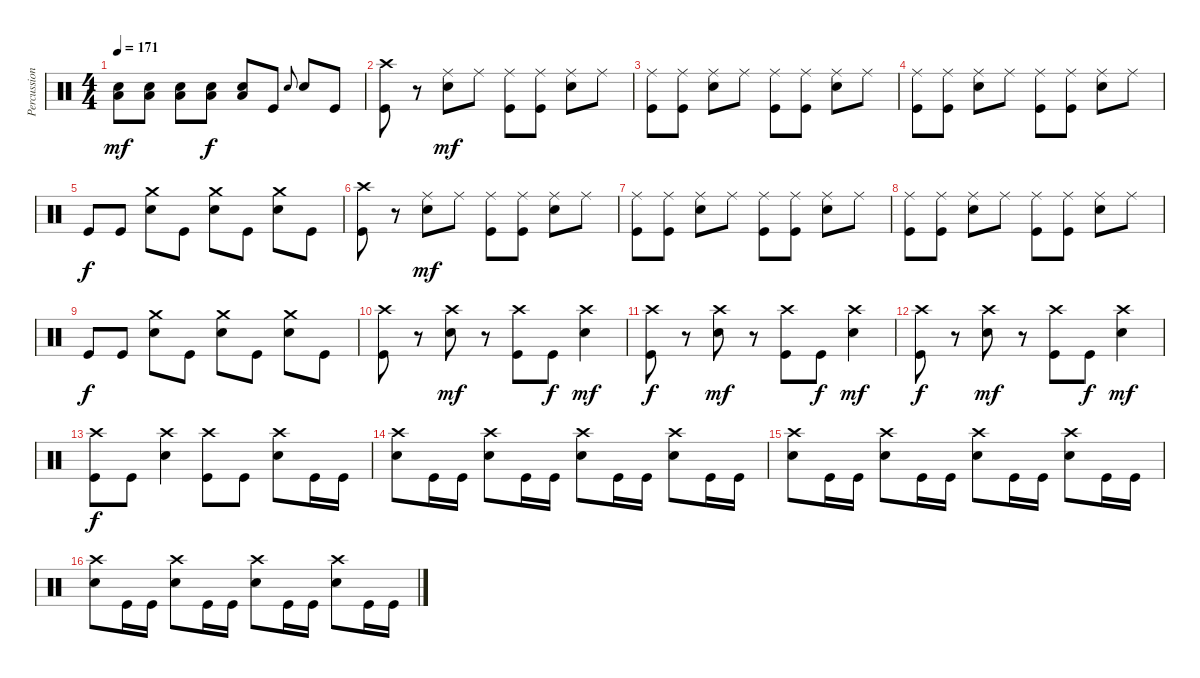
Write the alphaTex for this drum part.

\track ("Percussion" "Percussion") {instrument percussion}
\staff {score}
\articulation defaults
\ts (4 4)
\tempo 171
\clef neutral
\ks c
("Low Floor Tom (hit)" "Electric Snare (hit)").8{dy mf} ("Low Floor Tom (hit)" "Electric Snare (hit)").8 ("Low Floor Tom (hit)" "Electric Snare (hit)").8 ("Low Floor Tom (hit)" "Electric Snare (hit)").8{dy f} ("Low Floor Tom (hit)" "Electric Snare (hit)").8 "Kick (hit)".8 "Electric Snare (hit)".8{gr onbeat} "Electric Snare (hit)".8 "Kick (hit)".8 |
("Crash high (hit)" "Kick (hit)").8 r.8 ("Ride (middle)" "Electric Snare (hit)").8{dy mf} "Ride (middle)".8 ("Ride (middle)" "Kick (hit)").8 ("Ride (middle)" "Kick (hit)").8 ("Ride (middle)" "Electric Snare (hit)").8 "Ride (middle)".8 |
("Ride (middle)" "Kick (hit)").8 ("Ride (middle)" "Kick (hit)").8 ("Ride (middle)" "Electric Snare (hit)").8 "Ride (middle)".8 ("Ride (middle)" "Kick (hit)").8 ("Ride (middle)" "Kick (hit)").8 ("Ride (middle)" "Electric Snare (hit)").8 "Ride (middle)".8 |
("Ride (middle)" "Kick (hit)").8 ("Ride (middle)" "Kick (hit)").8 ("Ride (middle)" "Electric Snare (hit)").8 "Ride (middle)".8 ("Ride (middle)" "Kick (hit)").8 ("Ride (middle)" "Kick (hit)").8 ("Ride (middle)" "Electric Snare (hit)").8 "Ride (middle)".8 |
"Kick (hit)".8{dy f} "Kick (hit)".8 ("Crash medium (hit)" "Electric Snare (hit)").8 "Kick (hit)".8 ("Crash medium (hit)" "Electric Snare (hit)").8 "Kick (hit)".8 ("Crash medium (hit)" "Electric Snare (hit)").8 "Kick (hit)".8 |
("Crash high (hit)" "Kick (hit)").8 r.8 ("Ride (middle)" "Electric Snare (hit)").8{dy mf} "Ride (middle)".8 ("Ride (middle)" "Kick (hit)").8 ("Ride (middle)" "Kick (hit)").8 ("Ride (middle)" "Electric Snare (hit)").8 "Ride (middle)".8 |
("Ride (middle)" "Kick (hit)").8 ("Ride (middle)" "Kick (hit)").8 ("Ride (middle)" "Electric Snare (hit)").8 "Ride (middle)".8 ("Ride (middle)" "Kick (hit)").8 ("Ride (middle)" "Kick (hit)").8 ("Ride (middle)" "Electric Snare (hit)").8 "Ride (middle)".8 |
("Ride (middle)" "Kick (hit)").8 ("Ride (middle)" "Kick (hit)").8 ("Ride (middle)" "Electric Snare (hit)").8 "Ride (middle)".8 ("Ride (middle)" "Kick (hit)").8 ("Ride (middle)" "Kick (hit)").8 ("Ride (middle)" "Electric Snare (hit)").8 "Ride (middle)".8 |
"Kick (hit)".8{dy f} "Kick (hit)".8 ("Crash medium (hit)" "Electric Snare (hit)").8 "Kick (hit)".8 ("Crash medium (hit)" "Electric Snare (hit)").8 "Kick (hit)".8 ("Crash medium (hit)" "Electric Snare (hit)").8 "Kick (hit)".8 |
("Crash high (hit)" "Kick (hit)").8 r.8 ("Crash high (hit)" "Electric Snare (hit)").8{dy mf} r.8 ("Crash high (hit)" "Kick (hit)").8 "Kick (hit)".8{dy f} ("Crash high (hit)" "Electric Snare (hit)").4{dy mf} |
("Crash high (hit)" "Kick (hit)").8{dy f} r.8 ("Crash high (hit)" "Electric Snare (hit)").8{dy mf} r.8 ("Crash high (hit)" "Kick (hit)").8 "Kick (hit)".8{dy f} ("Crash high (hit)" "Electric Snare (hit)").4{dy mf} |
("Crash high (hit)" "Kick (hit)").8{dy f} r.8 ("Crash high (hit)" "Electric Snare (hit)").8{dy mf} r.8 ("Crash high (hit)" "Kick (hit)").8 "Kick (hit)".8{dy f} ("Crash high (hit)" "Electric Snare (hit)").4{dy mf} |
("Crash high (hit)" "Kick (hit)").8{dy f} "Kick (hit)".8 ("Crash high (hit)" "Electric Snare (hit)").4 ("Crash high (hit)" "Kick (hit)").8 "Kick (hit)".8 ("Crash high (hit)" "Electric Snare (hit)").8 "Kick (hit)".16 "Kick (hit)".16 |
("Crash high (hit)" "Electric Snare (hit)").8 "Kick (hit)".16 "Kick (hit)".16 ("Crash high (hit)" "Electric Snare (hit)").8 "Kick (hit)".16 "Kick (hit)".16 ("Crash high (hit)" "Electric Snare (hit)").8 "Kick (hit)".16 "Kick (hit)".16 ("Crash high (hit)" "Electric Snare (hit)").8 "Kick (hit)".16 "Kick (hit)".16 |
("Crash high (hit)" "Electric Snare (hit)").8 "Kick (hit)".16 "Kick (hit)".16 ("Crash high (hit)" "Electric Snare (hit)").8 "Kick (hit)".16 "Kick (hit)".16 ("Crash high (hit)" "Electric Snare (hit)").8 "Kick (hit)".16 "Kick (hit)".16 ("Crash high (hit)" "Electric Snare (hit)").8 "Kick (hit)".16 "Kick (hit)".16 |
("Crash high (hit)" "Electric Snare (hit)").8 "Kick (hit)".16 "Kick (hit)".16 ("Crash high (hit)" "Electric Snare (hit)").8 "Kick (hit)".16 "Kick (hit)".16 ("Crash high (hit)" "Electric Snare (hit)").8 "Kick (hit)".16 "Kick (hit)".16 ("Crash high (hit)" "Electric Snare (hit)").8 "Kick (hit)".16 "Kick (hit)".16
